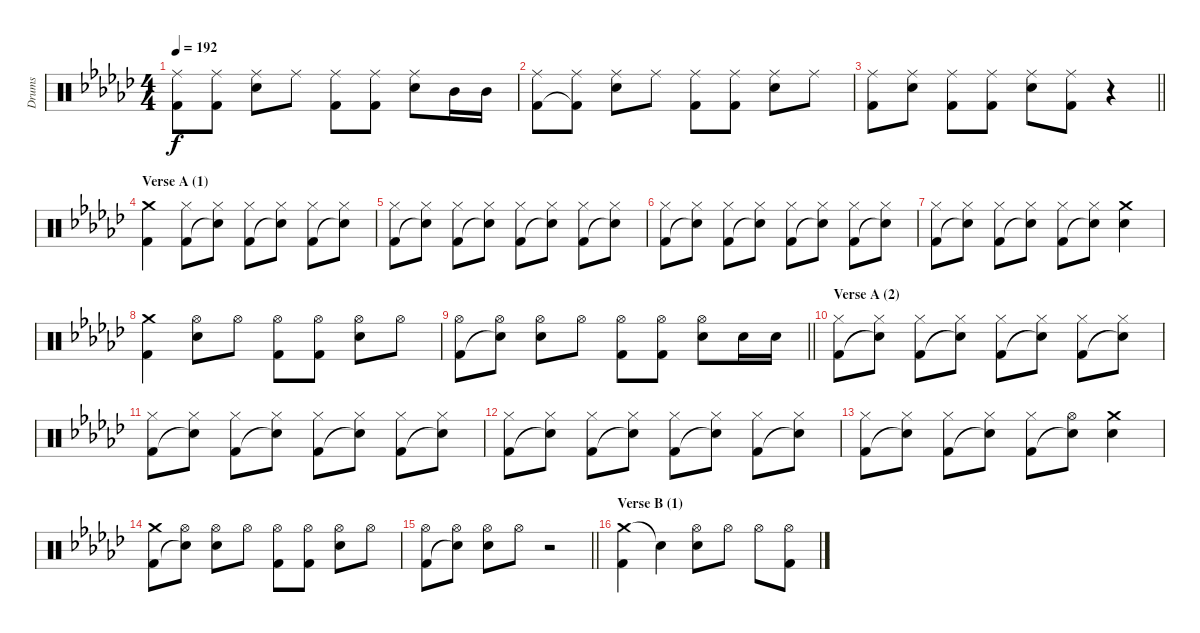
\track ("Drums" "Drums") {instrument percussion}
\staff {score}
\articulation defaults
\ts (4 4)
\tempo 192
\clef neutral
\ks ebminor
("Ride (middle)" "Kick (hit) 2").8{dy f} ("Ride (middle)" "Kick (hit) 2").8 ("Ride (middle)" "Electric Snare (hit)").8 "Ride (middle)".8 ("Ride (middle)" "Kick (hit) 2").8 ("Ride (middle)" "Kick (hit) 2").8 ("Ride (middle)" "Electric Snare (hit)").8 "Mid Tom (hit)".16 "Mid Tom (hit)".16 |
("Ride (middle)" "Kick (hit) 2").8 ("Ride (middle)" "Kick (hit) 2"{t}).8 ("Ride (middle)" "Electric Snare (hit)").8 "Ride (middle)".8 ("Ride (middle)" "Kick (hit) 2").8 ("Ride (middle)" "Kick (hit) 2").8 ("Ride (middle)" "Electric Snare (hit)").8 "Ride (middle)".8 |
\barLineRight lightlight
("Ride (middle)" "Kick (hit) 2").8 ("Ride (middle)" "Electric Snare (hit)").8 ("Ride (middle)" "Kick (hit) 2").8 ("Ride (middle)" "Kick (hit) 2").8 ("Ride (middle)" "Electric Snare (hit)").8 ("Ride (middle)" "Kick (hit) 2").8 r.4 |
\section ("" "Verse A (1)")
("Crash medium (hit)" "Kick (hit) 2").4 ("Hi-Hat (closed)" "Kick (hit) 2").8 ("Hi-Hat (closed)" "Snare (hit)"{t}).8 ("Hi-Hat (closed)" "Kick (hit) 2").8 ("Hi-Hat (closed)" "Snare (hit)"{t}).8 ("Hi-Hat (closed)" "Kick (hit) 2").8 ("Hi-Hat (closed)" "Snare (hit)"{t}).8 |
("Hi-Hat (closed)" "Kick (hit) 2").8 ("Hi-Hat (closed)" "Snare (hit)"{t}).8 ("Hi-Hat (closed)" "Kick (hit) 2").8 ("Hi-Hat (closed)" "Snare (hit)"{t}).8 ("Hi-Hat (closed)" "Kick (hit) 2").8 ("Hi-Hat (closed)" "Snare (hit)"{t}).8 ("Hi-Hat (closed)" "Kick (hit) 2").8 ("Hi-Hat (closed)" "Snare (hit)"{t}).8 |
("Hi-Hat (closed)" "Kick (hit) 2").8 ("Hi-Hat (closed)" "Snare (hit)"{t}).8 ("Hi-Hat (closed)" "Kick (hit) 2").8 ("Hi-Hat (closed)" "Snare (hit)"{t}).8 ("Hi-Hat (closed)" "Kick (hit) 2").8 ("Hi-Hat (closed)" "Snare (hit)"{t}).8 ("Hi-Hat (closed)" "Kick (hit) 2").8 ("Hi-Hat (closed)" "Snare (hit)"{t}).8 |
("Hi-Hat (closed)" "Kick (hit) 2").8 ("Hi-Hat (closed)" "Snare (hit)"{t}).8 ("Hi-Hat (closed)" "Kick (hit) 2").8 ("Hi-Hat (closed)" "Snare (hit)"{t}).8 ("Hi-Hat (closed)" "Kick (hit) 2").8 ("Hi-Hat (closed)" "Snare (hit)"{t}).8 ("Crash medium (hit)" "Electric Snare (hit)").4 |
("Crash medium (hit)" "Kick (hit) 2").4 ("Hi-Hat (open)" "Electric Snare (hit)").8 "Hi-Hat (open)".8 ("Hi-Hat (open)" "Kick (hit) 2").8 ("Hi-Hat (open)" "Kick (hit) 2").8 ("Hi-Hat (open)" "Electric Snare (hit)").8 "Hi-Hat (open)".8 |
\barLineRight lightlight
("Hi-Hat (open)" "Kick (hit) 2").8 ("Hi-Hat (open)" "Snare (hit)"{t}).8 ("Hi-Hat (open)" "Electric Snare (hit)").8 "Hi-Hat (open)".8 ("Hi-Hat (open)" "Kick (hit) 2").8 ("Hi-Hat (open)" "Kick (hit) 2").8 ("Hi-Hat (open)" "Electric Snare (hit)").8 "Electric Snare (hit)".16 "Electric Snare (hit)".16 |
\section ("" "Verse A (2)")
("Hi-Hat (closed)" "Kick (hit) 2").8 ("Hi-Hat (closed)" "Snare (hit)"{t}).8 ("Hi-Hat (closed)" "Kick (hit) 2").8 ("Hi-Hat (closed)" "Snare (hit)"{t}).8 ("Hi-Hat (closed)" "Kick (hit) 2").8 ("Hi-Hat (closed)" "Snare (hit)"{t}).8 ("Hi-Hat (closed)" "Kick (hit) 2").8 ("Hi-Hat (closed)" "Snare (hit)"{t}).8 |
("Hi-Hat (closed)" "Kick (hit) 2").8 ("Hi-Hat (closed)" "Snare (hit)"{t}).8 ("Hi-Hat (closed)" "Kick (hit) 2").8 ("Hi-Hat (closed)" "Snare (hit)"{t}).8 ("Hi-Hat (closed)" "Kick (hit) 2").8 ("Hi-Hat (closed)" "Snare (hit)"{t}).8 ("Hi-Hat (closed)" "Kick (hit) 2").8 ("Hi-Hat (closed)" "Snare (hit)"{t}).8 |
("Hi-Hat (closed)" "Kick (hit) 2").8 ("Hi-Hat (closed)" "Snare (hit)"{t}).8 ("Hi-Hat (closed)" "Kick (hit) 2").8 ("Hi-Hat (closed)" "Snare (hit)"{t}).8 ("Hi-Hat (closed)" "Kick (hit) 2").8 ("Hi-Hat (closed)" "Snare (hit)"{t}).8 ("Hi-Hat (closed)" "Kick (hit) 2").8 ("Hi-Hat (closed)" "Snare (hit)"{t}).8 |
("Hi-Hat (closed)" "Kick (hit) 2").8 ("Hi-Hat (closed)" "Snare (hit)"{t}).8 ("Hi-Hat (closed)" "Kick (hit) 2").8 ("Hi-Hat (closed)" "Snare (hit)"{t}).8 ("Hi-Hat (closed)" "Kick (hit) 2").8 ("Hi-Hat (open)" "Snare (hit)"{t}).8 ("Crash medium (hit)" "Electric Snare (hit)").4 |
("Crash medium (hit)" "Kick (hit) 2").8 ("Hi-Hat (open)" "Snare (hit)"{t}).8 ("Hi-Hat (open)" "Electric Snare (hit)").8 "Hi-Hat (open)".8 ("Hi-Hat (open)" "Kick (hit) 2").8 ("Hi-Hat (open)" "Kick (hit) 2").8 ("Hi-Hat (open)" "Electric Snare (hit)").8 "Hi-Hat (open)".8 |
\barLineRight lightlight
("Hi-Hat (open)" "Kick (hit) 2").8 ("Hi-Hat (open)" "Snare (hit)"{t}).8 ("Hi-Hat (open)" "Electric Snare (hit)").8 "Hi-Hat (open)".8 r.2 |
\section ("" "Verse B (1)")
("Crash medium (hit)" "Kick (hit) 2").4 "Snare (hit)"{t}.4 ("Hi-Hat (open)" "Electric Snare (hit)").8 "Hi-Hat (open)".8 "Hi-Hat (open)".8 ("Hi-Hat (open)" "Kick (hit) 2").8
